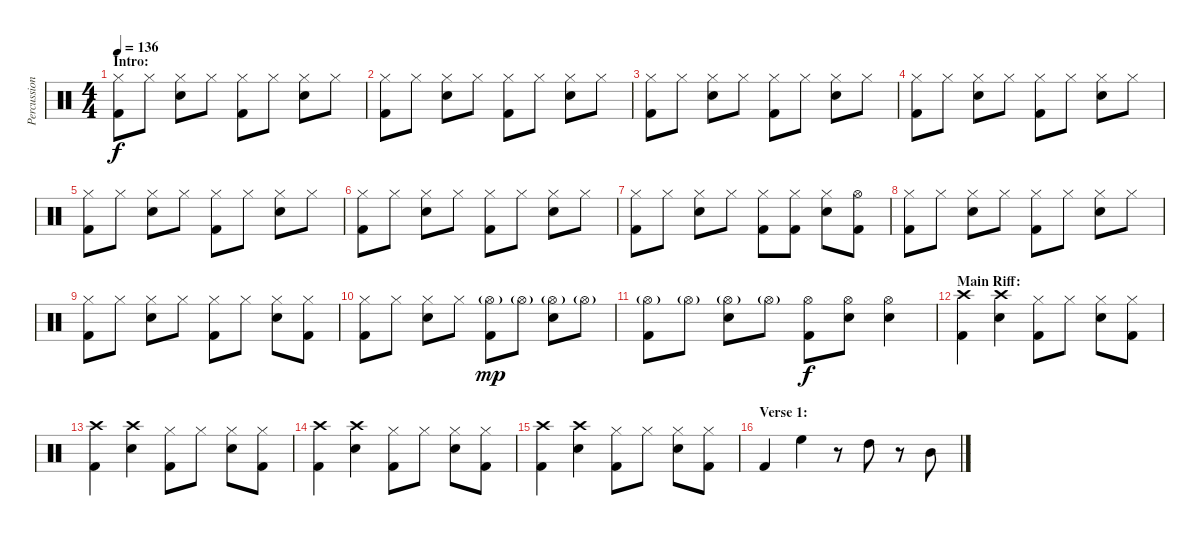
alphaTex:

\track ("Percussion" "Percussion") {instrument percussion}
\staff {score}
\articulation defaults
\ts (4 4)
\section ("" "Intro:")
\tempo 136
\clef neutral
\ks c
("Hi-Hat (closed)" "Kick (hit) 2").8{dy f} "Hi-Hat (closed)".8 ("Hi-Hat (closed)" "Electric Snare (hit)").8 "Hi-Hat (closed)".8 ("Hi-Hat (closed)" "Kick (hit) 2").8 "Hi-Hat (closed)".8 ("Hi-Hat (closed)" "Electric Snare (hit)").8 "Hi-Hat (closed)".8 |
("Hi-Hat (closed)" "Kick (hit) 2").8 "Hi-Hat (closed)".8 ("Hi-Hat (closed)" "Electric Snare (hit)").8 "Hi-Hat (closed)".8 ("Hi-Hat (closed)" "Kick (hit) 2").8 "Hi-Hat (closed)".8 ("Hi-Hat (closed)" "Electric Snare (hit)").8 "Hi-Hat (closed)".8 |
("Hi-Hat (closed)" "Kick (hit) 2").8 "Hi-Hat (closed)".8 ("Hi-Hat (closed)" "Electric Snare (hit)").8 "Hi-Hat (closed)".8 ("Hi-Hat (closed)" "Kick (hit) 2").8 "Hi-Hat (closed)".8 ("Hi-Hat (closed)" "Electric Snare (hit)").8 "Hi-Hat (closed)".8 |
("Hi-Hat (closed)" "Kick (hit) 2").8 "Hi-Hat (closed)".8 ("Hi-Hat (closed)" "Electric Snare (hit)").8 "Hi-Hat (closed)".8 ("Hi-Hat (closed)" "Kick (hit) 2").8 "Hi-Hat (closed)".8 ("Hi-Hat (closed)" "Electric Snare (hit)").8 "Hi-Hat (closed)".8 |
("Hi-Hat (closed)" "Kick (hit) 2").8 "Hi-Hat (closed)".8 ("Hi-Hat (closed)" "Electric Snare (hit)").8 "Hi-Hat (closed)".8 ("Hi-Hat (closed)" "Kick (hit) 2").8 "Hi-Hat (closed)".8 ("Hi-Hat (closed)" "Electric Snare (hit)").8 "Hi-Hat (closed)".8 |
("Hi-Hat (closed)" "Kick (hit) 2").8 "Hi-Hat (closed)".8 ("Hi-Hat (closed)" "Electric Snare (hit)").8 "Hi-Hat (closed)".8 ("Hi-Hat (closed)" "Kick (hit) 2").8 "Hi-Hat (closed)".8 ("Hi-Hat (closed)" "Electric Snare (hit)").8 "Hi-Hat (closed)".8 |
("Hi-Hat (closed)" "Kick (hit) 2").8 "Hi-Hat (closed)".8 ("Hi-Hat (closed)" "Electric Snare (hit)").8 "Hi-Hat (closed)".8 ("Hi-Hat (closed)" "Kick (hit) 2").8 ("Hi-Hat (closed)" "Kick (hit) 2").8 ("Hi-Hat (closed)" "Electric Snare (hit)").8 ("Hi-Hat (open)" "Kick (hit) 2").8 |
("Hi-Hat (closed)" "Kick (hit) 2").8 "Hi-Hat (closed)".8 ("Hi-Hat (closed)" "Electric Snare (hit)").8 "Hi-Hat (closed)".8 ("Hi-Hat (closed)" "Kick (hit) 2").8 "Hi-Hat (closed)".8 ("Hi-Hat (closed)" "Electric Snare (hit)").8 "Hi-Hat (closed)".8 |
("Hi-Hat (closed)" "Kick (hit) 2").8 "Hi-Hat (closed)".8 ("Hi-Hat (closed)" "Electric Snare (hit)").8 "Hi-Hat (closed)".8 ("Hi-Hat (closed)" "Kick (hit) 2").8 "Hi-Hat (closed)".8 ("Hi-Hat (closed)" "Electric Snare (hit)").8 ("Hi-Hat (closed)" "Kick (hit) 2").8 |
("Hi-Hat (closed)" "Kick (hit) 2").8 "Hi-Hat (closed)".8 ("Hi-Hat (closed)" "Electric Snare (hit)").8 "Hi-Hat (closed)".8 ("Hi-Hat (open)"{g} "Kick (hit) 2").8{dy mp} "Hi-Hat (open)"{g}.8 ("Hi-Hat (open)"{g} "Electric Snare (hit)").8 "Hi-Hat (open)"{g}.8 |
("Hi-Hat (open)"{g} "Kick (hit) 2").8 "Hi-Hat (open)"{g}.8 ("Hi-Hat (open)"{g} "Electric Snare (hit)").8 "Hi-Hat (open)"{g}.8 ("Hi-Hat (open)" "Kick (hit) 2").8{dy f} ("Hi-Hat (open)" "Electric Snare (hit)").8 ("Hi-Hat (open)" "Electric Snare (hit)").4 |
\section ("" "Main Riff:")
("Crash high (hit)" "Kick (hit) 2").4 ("Crash high (hit)" "Electric Snare (hit)").4 ("Hi-Hat (closed)" "Kick (hit) 2").8 "Hi-Hat (closed)".8 ("Hi-Hat (closed)" "Electric Snare (hit)").8 ("Hi-Hat (closed)" "Kick (hit) 2").8 |
("Crash high (hit)" "Kick (hit) 2").4 ("Crash high (hit)" "Electric Snare (hit)").4 ("Hi-Hat (closed)" "Kick (hit) 2").8 "Hi-Hat (closed)".8 ("Hi-Hat (closed)" "Electric Snare (hit)").8 ("Hi-Hat (closed)" "Kick (hit) 2").8 |
("Crash high (hit)" "Kick (hit) 2").4 ("Crash high (hit)" "Electric Snare (hit)").4 ("Hi-Hat (closed)" "Kick (hit) 2").8 "Hi-Hat (closed)".8 ("Hi-Hat (closed)" "Electric Snare (hit)").8 ("Hi-Hat (closed)" "Kick (hit) 2").8 |
("Crash high (hit)" "Kick (hit) 2").4 ("Crash high (hit)" "Electric Snare (hit)").4 ("Hi-Hat (closed)" "Kick (hit) 2").8 "Hi-Hat (closed)".8 ("Hi-Hat (closed)" "Electric Snare (hit)").8 ("Hi-Hat (closed)" "Kick (hit) 2").8 |
\section ("" "Verse 1:")
"Kick (hit) 2".4 "High Floor Tom (hit)".4 r.8 "High Tom (hit)".8 r.8 "Mid Tom (hit)".8
